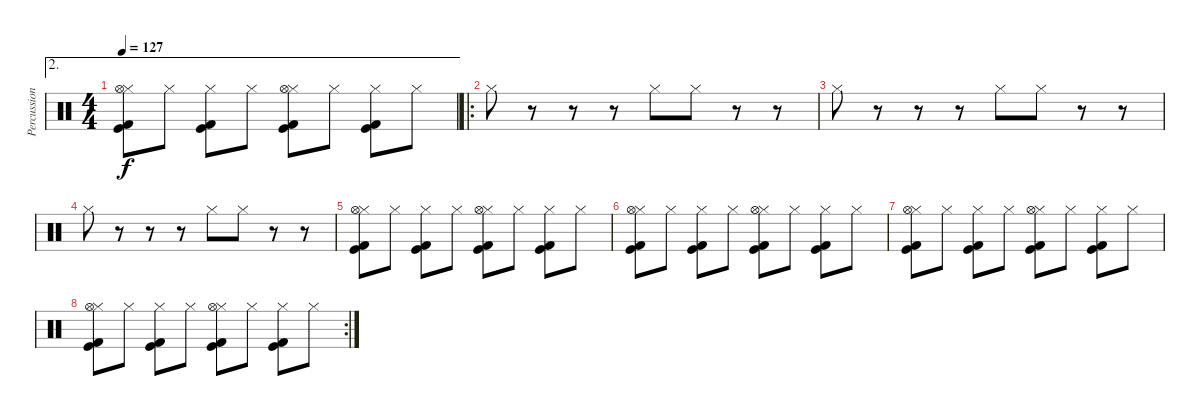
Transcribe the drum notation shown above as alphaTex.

\track ("Percussion" "Percussion") {instrument percussion}
\staff {score}
\articulation defaults
\ae 2
\ts (4 4)
\tempo 127
\clef neutral
\ks c
("Hi-Hat (closed)" "Hi-Hat (open)" "Kick (hit) 2" "Kick (hit)").8{dy f} "Hi-Hat (closed)".8 ("Hi-Hat (closed)" "Kick (hit) 2" "Kick (hit)").8 "Hi-Hat (closed)".8 ("Hi-Hat (closed)" "Hi-Hat (open)" "Kick (hit) 2" "Kick (hit)").8 "Hi-Hat (closed)".8 ("Hi-Hat (closed)" "Kick (hit) 2" "Kick (hit)").8 "Hi-Hat (closed)".8 |
\ro "Hi-Hat (closed)".8
r.8 r.8 r.8 "Hi-Hat (closed)".8 "Hi-Hat (closed)".8 r.8 r.8 |
"Hi-Hat (closed)".8 r.8 r.8 r.8 "Hi-Hat (closed)".8 "Hi-Hat (closed)".8 r.8 r.8 |
"Hi-Hat (closed)".8 r.8 r.8 r.8 "Hi-Hat (closed)".8 "Hi-Hat (closed)".8 r.8 r.8 |
("Hi-Hat (closed)" "Hi-Hat (open)" "Kick (hit) 2" "Kick (hit)").8 "Hi-Hat (closed)".8 ("Hi-Hat (closed)" "Kick (hit) 2" "Kick (hit)").8 "Hi-Hat (closed)".8 ("Hi-Hat (closed)" "Hi-Hat (open)" "Kick (hit) 2" "Kick (hit)").8 "Hi-Hat (closed)".8 ("Hi-Hat (closed)" "Kick (hit) 2" "Kick (hit)").8 "Hi-Hat (closed)".8 |
("Hi-Hat (closed)" "Hi-Hat (open)" "Kick (hit) 2" "Kick (hit)").8 "Hi-Hat (closed)".8 ("Hi-Hat (closed)" "Kick (hit) 2" "Kick (hit)").8 "Hi-Hat (closed)".8 ("Hi-Hat (closed)" "Hi-Hat (open)" "Kick (hit) 2" "Kick (hit)").8 "Hi-Hat (closed)".8 ("Hi-Hat (closed)" "Kick (hit) 2" "Kick (hit)").8 "Hi-Hat (closed)".8 |
("Hi-Hat (closed)" "Hi-Hat (open)" "Kick (hit) 2" "Kick (hit)").8 "Hi-Hat (closed)".8 ("Hi-Hat (closed)" "Kick (hit) 2" "Kick (hit)").8 "Hi-Hat (closed)".8 ("Hi-Hat (closed)" "Hi-Hat (open)" "Kick (hit) 2" "Kick (hit)").8 "Hi-Hat (closed)".8 ("Hi-Hat (closed)" "Kick (hit) 2" "Kick (hit)").8 "Hi-Hat (closed)".8 |
\rc 2
("Hi-Hat (closed)" "Hi-Hat (open)" "Kick (hit) 2" "Kick (hit)").8 "Hi-Hat (closed)".8 ("Hi-Hat (closed)" "Kick (hit) 2" "Kick (hit)").8 "Hi-Hat (closed)".8 ("Hi-Hat (closed)" "Hi-Hat (open)" "Kick (hit) 2" "Kick (hit)").8 "Hi-Hat (closed)".8 ("Hi-Hat (closed)" "Kick (hit) 2" "Kick (hit)").8 "Hi-Hat (closed)".8
